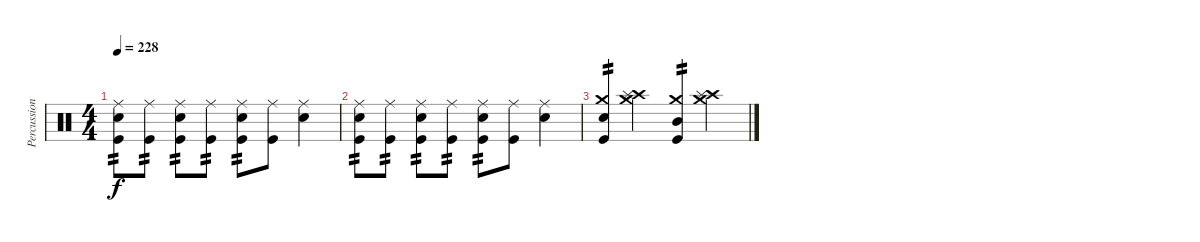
\track ("Percussion" "Percussion") {instrument percussion}
\staff {score}
\articulation defaults
\ts (4 4)
\tempo 228
\clef neutral
\ks c
("Ride (middle)" "Snare (hit) 2" "Kick (hit)").8{tp 2 dy f} ("Ride (middle)" "Kick (hit)").8{tp 2} ("Ride (middle)" "Snare (hit) 2" "Kick (hit)").8{tp 2} ("Ride (middle)" "Kick (hit)").8{tp 2} ("Ride (middle)" "Snare (hit) 2" "Kick (hit)").8{tp 2} ("Ride (middle)" "Kick (hit)").8 ("Ride (middle)" "Snare (hit) 2").4 |
("Ride (middle)" "Snare (hit) 2" "Kick (hit)").8{tp 2} ("Ride (middle)" "Kick (hit)").8{tp 2} ("Ride (middle)" "Snare (hit) 2" "Kick (hit)").8{tp 2} ("Ride (middle)" "Kick (hit)").8{tp 2} ("Ride (middle)" "Snare (hit) 2" "Kick (hit)").8{tp 2} ("Ride (middle)" "Kick (hit)").8 ("Ride (middle)" "Snare (hit) 2").4 |
("Crash medium (hit)" "Electric Snare (hit)" "Kick (hit)").4{tp 2} ("Crash high (hit)" "Crash medium (hit)" "Splash (hit)").4 ("Crash medium (hit)" "Mid Tom (hit)" "Kick (hit)").4{tp 2} ("Crash high (hit)" "Crash medium (hit)" "Splash (hit)").4
